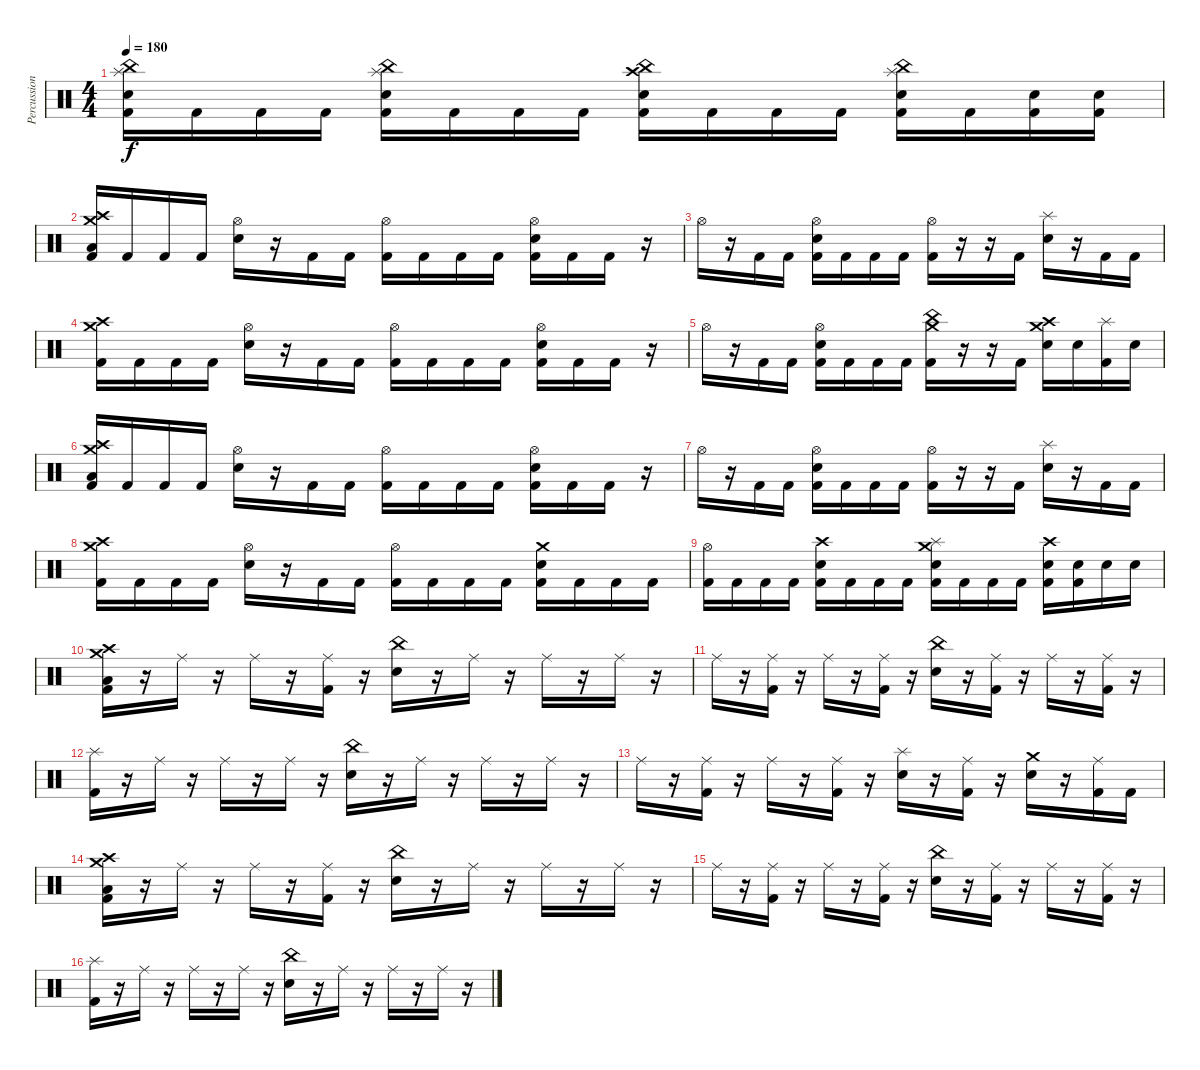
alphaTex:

\track ("Percussion" "Percussion") {instrument percussion}
\staff {score}
\articulation defaults
\ts (4 4)
\tempo 180
\clef neutral
\ks c
("China (hit)" "Splash (hit)" "Electric Snare (hit)" "Kick (hit) 2").16{dy f} "Kick (hit) 2".16 "Kick (hit) 2".16 "Kick (hit) 2".16 ("China (hit)" "Splash (hit)" "Electric Snare (hit)" "Kick (hit) 2").16 "Kick (hit) 2".16 "Kick (hit) 2".16 "Kick (hit) 2".16 ("China (hit)" "Crash high (hit)" "Electric Snare (hit)" "Kick (hit) 2").16 "Kick (hit) 2".16 "Kick (hit) 2".16 "Kick (hit) 2".16 ("Splash (hit)" "China (hit)" "Electric Snare (hit)" "Kick (hit) 2").16 "Kick (hit) 2".16 ("Electric Snare (hit)" "Kick (hit) 2").16 ("Electric Snare (hit)" "Kick (hit) 2").16 |
("Crash high (hit)" "Crash medium (hit)" "Low Floor Tom (hit)" "Kick (hit) 2").16 "Kick (hit) 2".16 "Kick (hit) 2".16 "Kick (hit) 2".16 ("Hi-Hat (open)" "Electric Snare (hit)").16 r.16 "Kick (hit) 2".16 "Kick (hit) 2".16 ("Hi-Hat (open)" "Kick (hit) 2").16 "Kick (hit) 2".16 "Kick (hit) 2".16 "Kick (hit) 2".16 ("Hi-Hat (open)" "Electric Snare (hit)" "Kick (hit) 2").16 "Kick (hit) 2".16 "Kick (hit) 2".16 r.16 |
"Hi-Hat (open)".16 r.16 "Kick (hit) 2".16 "Kick (hit) 2".16 ("Hi-Hat (open)" "Electric Snare (hit)" "Kick (hit) 2").16 "Kick (hit) 2".16 "Kick (hit) 2".16 "Kick (hit) 2".16 ("Hi-Hat (open)" "Kick (hit) 2").16 r.16 r.16 "Kick (hit) 2".16 ("Splash (hit)" "Electric Snare (hit)").16 r.16 "Kick (hit) 2".16 "Kick (hit) 2".16 |
("Crash high (hit)" "Crash medium (hit)" "Kick (hit) 2").16 "Kick (hit) 2".16 "Kick (hit) 2".16 "Kick (hit) 2".16 ("Hi-Hat (open)" "Electric Snare (hit)").16 r.16 "Kick (hit) 2".16 "Kick (hit) 2".16 ("Hi-Hat (open)" "Kick (hit) 2").16 "Kick (hit) 2".16 "Kick (hit) 2".16 "Kick (hit) 2".16 ("Hi-Hat (open)" "Electric Snare (hit)" "Kick (hit) 2").16 "Kick (hit) 2".16 "Kick (hit) 2".16 r.16 |
"Hi-Hat (open)".16 r.16 "Kick (hit) 2".16 "Kick (hit) 2".16 ("Hi-Hat (open)" "Electric Snare (hit)" "Kick (hit) 2").16 "Kick (hit) 2".16 "Kick (hit) 2".16 "Kick (hit) 2".16 ("Crash medium (hit)" "China (hit)" "Kick (hit) 2").16 r.16 r.16 "Kick (hit) 2".16 ("Crash medium (hit)" "Crash high (hit)" "Electric Snare (hit)").16 "Electric Snare (hit)".16 ("Splash (hit)" "Kick (hit) 2").16 "Electric Snare (hit)".16 |
("Crash high (hit)" "Crash medium (hit)" "Low Floor Tom (hit)" "Kick (hit) 2").16 "Kick (hit) 2".16 "Kick (hit) 2".16 "Kick (hit) 2".16 ("Hi-Hat (open)" "Electric Snare (hit)").16 r.16 "Kick (hit) 2".16 "Kick (hit) 2".16 ("Hi-Hat (open)" "Kick (hit) 2").16 "Kick (hit) 2".16 "Kick (hit) 2".16 "Kick (hit) 2".16 ("Hi-Hat (open)" "Electric Snare (hit)" "Kick (hit) 2").16 "Kick (hit) 2".16 "Kick (hit) 2".16 r.16 |
"Hi-Hat (open)".16 r.16 "Kick (hit) 2".16 "Kick (hit) 2".16 ("Hi-Hat (open)" "Electric Snare (hit)" "Kick (hit) 2").16 "Kick (hit) 2".16 "Kick (hit) 2".16 "Kick (hit) 2".16 ("Hi-Hat (open)" "Kick (hit) 2").16 r.16 r.16 "Kick (hit) 2".16 ("Splash (hit)" "Electric Snare (hit)").16 r.16 "Kick (hit) 2".16 "Kick (hit) 2".16 |
("Crash high (hit)" "Crash medium (hit)" "Kick (hit) 2").16 "Kick (hit) 2".16 "Kick (hit) 2".16 "Kick (hit) 2".16 ("Hi-Hat (open)" "Electric Snare (hit)").16 r.16 "Kick (hit) 2".16 "Kick (hit) 2".16 ("Hi-Hat (open)" "Kick (hit) 2").16 "Kick (hit) 2".16 "Kick (hit) 2".16 "Kick (hit) 2".16 ("Crash medium (hit)" "Electric Snare (hit)" "Kick (hit) 2").16 "Kick (hit) 2".16 "Kick (hit) 2".16 "Kick (hit) 2".16 |
("Hi-Hat (open)" "Kick (hit) 2").16 "Kick (hit) 2".16 "Kick (hit) 2".16 "Kick (hit) 2".16 ("Crash high (hit)" "Electric Snare (hit)" "Kick (hit) 2").16 "Kick (hit) 2".16 "Kick (hit) 2".16 "Kick (hit) 2".16 ("Crash medium (hit)" "Splash (hit)" "Electric Snare (hit)" "Kick (hit) 2").16 "Kick (hit) 2".16 "Kick (hit) 2".16 "Kick (hit) 2".16 ("Crash high (hit)" "Electric Snare (hit)" "Kick (hit) 2").16 ("Electric Snare (hit)" "Kick (hit) 2").16 "Electric Snare (hit)".16 "Electric Snare (hit)".16 |
("Crash high (hit)" "Crash medium (hit)" "Low Floor Tom (hit)" "Kick (hit) 2").16 r.16 "Ride (middle)".16 r.16 "Ride (middle)".16 r.16 ("Ride (middle)" "Kick (hit) 2").16 r.16 ("China (hit)" "Electric Snare (hit)").16 r.16 "Ride (middle)".16 r.16 "Ride (middle)".16 r.16 "Ride (middle)".16 r.16 |
"Ride (middle)".16 r.16 ("Ride (middle)" "Kick (hit) 2").16 r.16 "Ride (middle)".16 r.16 ("Ride (middle)" "Kick (hit) 2").16 r.16 ("China (hit)" "Electric Snare (hit)").16 r.16 ("Ride (middle)" "Kick (hit) 2").16 r.16 "Ride (middle)".16 r.16 ("Ride (middle)" "Kick (hit) 2").16 r.16 |
("Splash (hit)" "Kick (hit) 2").16 r.16 "Ride (middle)".16 r.16 "Ride (middle)".16 r.16 "Ride (middle)".16 r.16 ("China (hit)" "Electric Snare (hit)").16 r.16 "Ride (middle)".16 r.16 "Ride (middle)".16 r.16 "Ride (middle)".16 r.16 |
"Ride (middle)".16 r.16 ("Ride (middle)" "Kick (hit) 2").16 r.16 "Ride (middle)".16 r.16 ("Ride (middle)" "Kick (hit) 2").16 r.16 ("Splash (hit)" "Electric Snare (hit)").16 r.16 ("Ride (middle)" "Kick (hit) 2").16 r.16 ("Crash medium (hit)" "Electric Snare (hit)").16 r.16 ("Ride (middle)" "Kick (hit) 2").16 "Kick (hit) 2".16 |
("Crash high (hit)" "Crash medium (hit)" "Low Floor Tom (hit)" "Kick (hit) 2").16 r.16 "Ride (middle)".16 r.16 "Ride (middle)".16 r.16 ("Ride (middle)" "Kick (hit) 2").16 r.16 ("China (hit)" "Electric Snare (hit)").16 r.16 "Ride (middle)".16 r.16 "Ride (middle)".16 r.16 "Ride (middle)".16 r.16 |
"Ride (middle)".16 r.16 ("Ride (middle)" "Kick (hit) 2").16 r.16 "Ride (middle)".16 r.16 ("Ride (middle)" "Kick (hit) 2").16 r.16 ("China (hit)" "Electric Snare (hit)").16 r.16 ("Ride (middle)" "Kick (hit) 2").16 r.16 "Ride (middle)".16 r.16 ("Ride (middle)" "Kick (hit) 2").16 r.16 |
("Splash (hit)" "Kick (hit) 2").16 r.16 "Ride (middle)".16 r.16 "Ride (middle)".16 r.16 "Ride (middle)".16 r.16 ("China (hit)" "Electric Snare (hit)").16 r.16 "Ride (middle)".16 r.16 "Ride (middle)".16 r.16 "Ride (middle)".16 r.16
